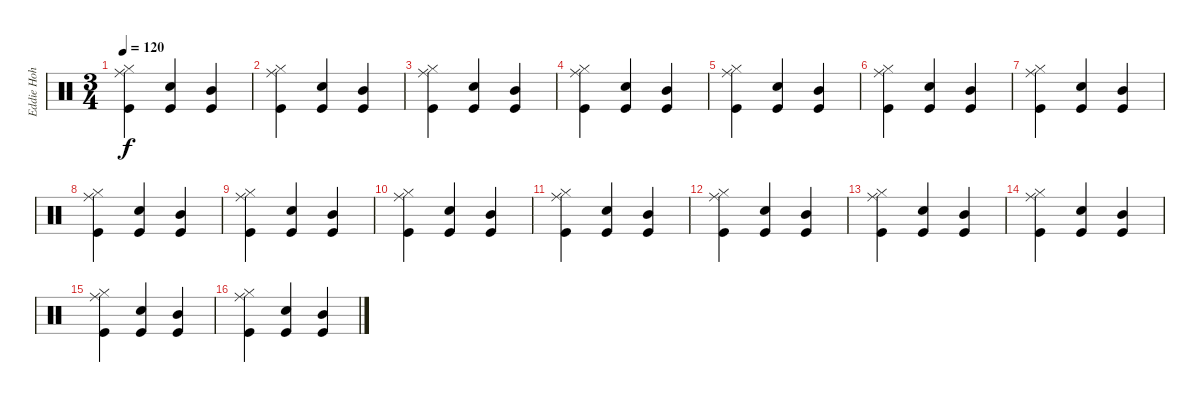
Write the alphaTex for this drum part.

\track ("Eddie Hoh" "Eddie Hoh") {instrument percussion}
\staff {score}
\articulation defaults
\ts (3 4)
\tempo 120
\clef neutral
\ks c
("Ride (middle)" "Hi-Hat (closed)" "Kick (hit)").4{dy f} ("Snare (hit) 2" "Kick (hit)").4 ("Mid Tom (hit)" "Kick (hit)").4 |
("Ride (middle)" "Hi-Hat (closed)" "Kick (hit)").4 ("Snare (hit) 2" "Kick (hit)").4 ("Mid Tom (hit)" "Kick (hit)").4 |
("Ride (middle)" "Hi-Hat (closed)" "Kick (hit)").4 ("Snare (hit) 2" "Kick (hit)").4 ("Mid Tom (hit)" "Kick (hit)").4 |
("Ride (middle)" "Hi-Hat (closed)" "Kick (hit)").4 ("Snare (hit) 2" "Kick (hit)").4 ("Mid Tom (hit)" "Kick (hit)").4 |
("Ride (middle)" "Hi-Hat (closed)" "Kick (hit)").4 ("Snare (hit) 2" "Kick (hit)").4 ("Mid Tom (hit)" "Kick (hit)").4 |
("Ride (middle)" "Hi-Hat (closed)" "Kick (hit)").4 ("Snare (hit) 2" "Kick (hit)").4 ("Mid Tom (hit)" "Kick (hit)").4 |
("Ride (middle)" "Hi-Hat (closed)" "Kick (hit)").4 ("Snare (hit) 2" "Kick (hit)").4 ("Mid Tom (hit)" "Kick (hit)").4 |
("Ride (middle)" "Hi-Hat (closed)" "Kick (hit)").4 ("Snare (hit) 2" "Kick (hit)").4 ("Mid Tom (hit)" "Kick (hit)").4 |
("Ride (middle)" "Hi-Hat (closed)" "Kick (hit)").4 ("Snare (hit) 2" "Kick (hit)").4 ("Mid Tom (hit)" "Kick (hit)").4 |
("Ride (middle)" "Hi-Hat (closed)" "Kick (hit)").4 ("Snare (hit) 2" "Kick (hit)").4 ("Mid Tom (hit)" "Kick (hit)").4 |
("Ride (middle)" "Hi-Hat (closed)" "Kick (hit)").4 ("Snare (hit) 2" "Kick (hit)").4 ("Mid Tom (hit)" "Kick (hit)").4 |
("Ride (middle)" "Hi-Hat (closed)" "Kick (hit)").4 ("Snare (hit) 2" "Kick (hit)").4 ("Mid Tom (hit)" "Kick (hit)").4 |
("Ride (middle)" "Hi-Hat (closed)" "Kick (hit)").4 ("Snare (hit) 2" "Kick (hit)").4 ("Mid Tom (hit)" "Kick (hit)").4 |
("Ride (middle)" "Hi-Hat (closed)" "Kick (hit)").4 ("Snare (hit) 2" "Kick (hit)").4 ("Mid Tom (hit)" "Kick (hit)").4 |
("Ride (middle)" "Hi-Hat (closed)" "Kick (hit)").4 ("Snare (hit) 2" "Kick (hit)").4 ("Mid Tom (hit)" "Kick (hit)").4 |
("Ride (middle)" "Hi-Hat (closed)" "Kick (hit)").4 ("Snare (hit) 2" "Kick (hit)").4 ("Mid Tom (hit)" "Kick (hit)").4
